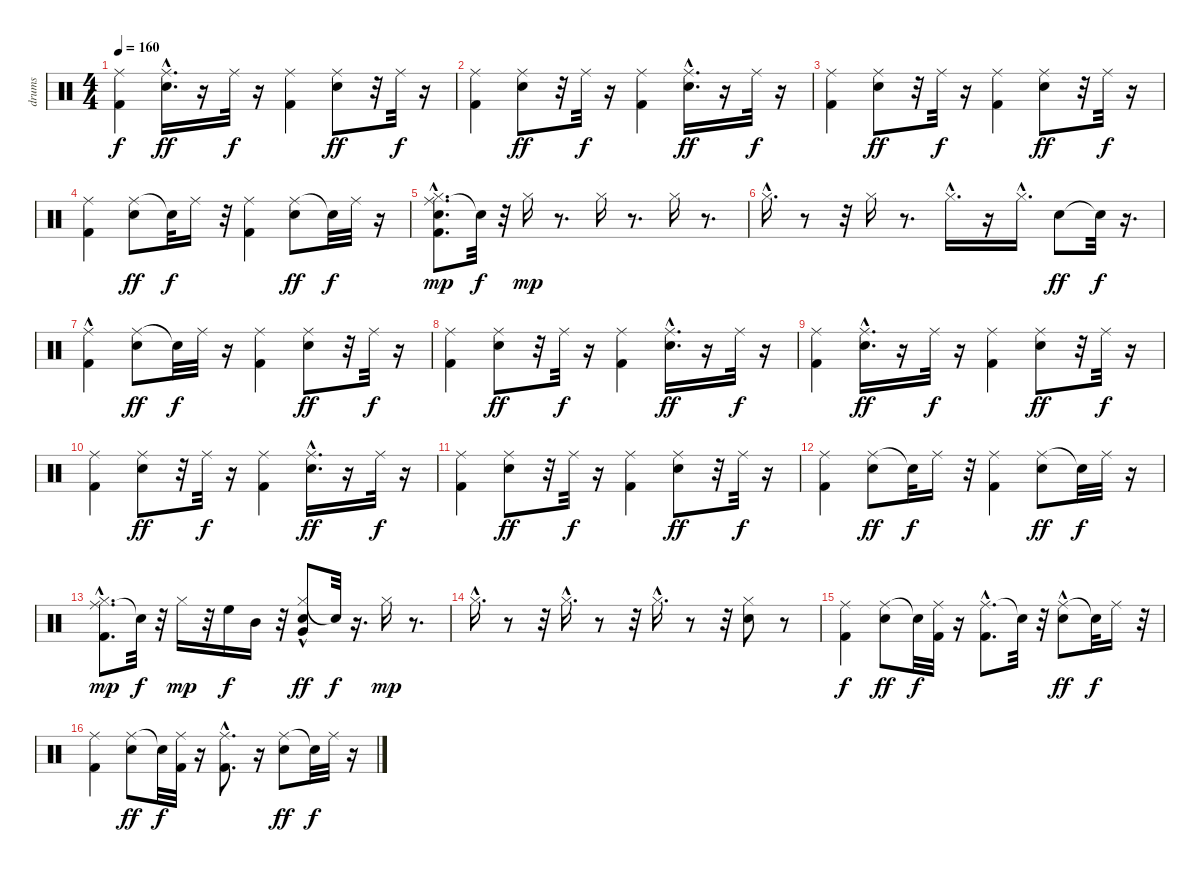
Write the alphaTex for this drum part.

\track ("drums" "drums") {instrument percussion}
\staff {score}
\articulation defaults
\ts (4 4)
\tempo 160
\clef neutral
\ks c
("Ride (middle)" "Kick (hit) 2").4{dy f} ("Ride (middle)" "Snare (hit) 2"{hac}).16{d dy ff} r.16 "Ride (middle)".32{dy f} r.16 ("Ride (middle)" "Kick (hit) 2").4 ("Snare (hit) 2" "Ride (middle)").8{dy ff} r.32 "Ride (middle)".32{dy f} r.16 |
("Ride (middle)" "Kick (hit) 2").4 ("Ride (middle)" "Snare (hit) 2").8{dy ff} r.32 "Ride (middle)".32{dy f} r.16 ("Ride (middle)" "Kick (hit) 2").4 ("Ride (middle)" "Snare (hit) 2"{hac}).16{d dy ff} r.16 "Ride (middle)".32{dy f} r.16 |
("Ride (middle)" "Kick (hit) 2").4 ("Snare (hit) 2" "Ride (middle)").8{dy ff} r.32 "Ride (middle)".32{dy f} r.16 ("Ride (middle)" "Kick (hit) 2").4 ("Ride (middle)" "Snare (hit) 2").8{dy ff} r.32 "Ride (middle)".32{dy f} r.16 |
("Ride (middle)" "Kick (hit) 2").4 ("Ride (middle)" "Snare (hit) 2").8{dy ff} "Snare (hit)"{t}.32{dy f} "Ride (middle)".16 r.32 ("Ride (middle)" "Kick (hit) 2").4 ("Ride (middle)" "Snare (hit) 2").8{dy ff} "Snare (hit)"{t}.32{dy f} "Ride (middle)".32 r.16 |
("Ride (middle)" "Kick (hit) 2"{hac} "Snare (hit) 2"{hac} "Hi-Hat (closed)").8{d dy mp} "Snare (hit)"{t}.32{dy f} r.32 "Hi-Hat (closed)".16{dy mp} r.8{d} "Hi-Hat (closed)".16 r.8{d} "Hi-Hat (closed)".16 r.8{d} |
"Hi-Hat (closed)"{hac}.16{d} r.8 r.32 "Hi-Hat (closed)".16 r.8{d} "Hi-Hat (closed)"{hac}.16{d} r.16 "Hi-Hat (closed)"{hac}.16{d} "Snare (hit) 2".8{dy ff} "Snare (hit)"{t}.32{dy f} r.16{d} |
("Ride (middle)"{hac} "Kick (hit) 2").4 ("Ride (middle)" "Snare (hit) 2").8{dy ff} "Snare (hit)"{t}.32{dy f} "Ride (middle)".32 r.16 ("Ride (middle)" "Kick (hit) 2").4 ("Snare (hit) 2" "Ride (middle)").8{dy ff} r.32 "Ride (middle)".32{dy f} r.16 |
("Ride (middle)" "Kick (hit) 2").4 ("Ride (middle)" "Snare (hit) 2").8{dy ff} r.32 "Ride (middle)".32{dy f} r.16 ("Ride (middle)" "Kick (hit) 2").4 ("Ride (middle)" "Snare (hit) 2"{hac}).16{d dy ff} r.16 "Ride (middle)".32{dy f} r.16 |
("Ride (middle)" "Kick (hit) 2").4 ("Ride (middle)" "Snare (hit) 2"{hac}).16{d dy ff} r.16 "Ride (middle)".32{dy f} r.16 ("Ride (middle)" "Kick (hit) 2").4 ("Snare (hit) 2" "Ride (middle)").8{dy ff} r.32 "Ride (middle)".32{dy f} r.16 |
("Ride (middle)" "Kick (hit) 2").4 ("Ride (middle)" "Snare (hit) 2").8{dy ff} r.32 "Ride (middle)".32{dy f} r.16 ("Ride (middle)" "Kick (hit) 2").4 ("Ride (middle)" "Snare (hit) 2"{hac}).16{d dy ff} r.16 "Ride (middle)".32{dy f} r.16 |
("Ride (middle)" "Kick (hit) 2").4 ("Snare (hit) 2" "Ride (middle)").8{dy ff} r.32 "Ride (middle)".32{dy f} r.16 ("Ride (middle)" "Kick (hit) 2").4 ("Ride (middle)" "Snare (hit) 2").8{dy ff} r.32 "Ride (middle)".32{dy f} r.16 |
("Ride (middle)" "Kick (hit) 2").4 ("Ride (middle)" "Snare (hit) 2").8{dy ff} "Snare (hit)"{t}.32{dy f} "Ride (middle)".16 r.32 ("Ride (middle)" "Kick (hit) 2").4 ("Ride (middle)" "Snare (hit) 2").8{dy ff} "Snare (hit)"{t}.32{dy f} "Ride (middle)".32 r.16 |
("Ride (middle)" "Kick (hit) 2"{hac} "Hi-Hat (closed)").8{d dy mp} "Snare (hit)"{t}.32{dy f} r.32 "Hi-Hat (closed)".16{dy mp} r.32 "High Floor Tom (hit)".16{dy f} "Mid Tom (hit)".16 r.32 ("Hi-Hat (closed)" "Snare (hit) 2" "Very Low Tom (hit)"{hac}).8{dy ff} "Snare (hit)"{t}.32{dy f} r.16{d} "Hi-Hat (closed)".16{dy mp} r.8{d} |
"Hi-Hat (closed)"{hac}.16{d} r.8 r.32 "Hi-Hat (closed)"{hac}.16{d} r.8 r.32 "Hi-Hat (closed)"{hac}.16{d} r.8 r.32 ("Snare (hit) 2" "Hi-Hat (closed)").8 r.8 |
("Kick (hit) 2" "Ride (middle)").4{dy f} ("Ride (middle)" "Snare (hit) 2").8{dy ff} "Snare (hit)"{t}.32{dy f} ("Ride (middle)" "Kick (hit) 2").32 r.16 ("Ride (middle)" "Kick (hit) 2"{hac}).8{d} "Snare (hit)"{t}.32 r.32 ("Ride (middle)"{hac} "Snare (hit) 2").8{dy ff} "Snare (hit)"{t}.32{dy f} "Ride (middle)".16 r.32 |
("Kick (hit) 2" "Ride (middle)").4 ("Ride (middle)" "Snare (hit) 2").8{dy ff} "Snare (hit)"{t}.32{dy f} ("Ride (middle)" "Kick (hit) 2").32 r.16 ("Ride (middle)" "Kick (hit) 2"{hac}).8{d} r.16 ("Ride (middle)" "Snare (hit) 2").8{dy ff} "Snare (hit)"{t}.32{dy f} "Ride (middle)".32 r.16
